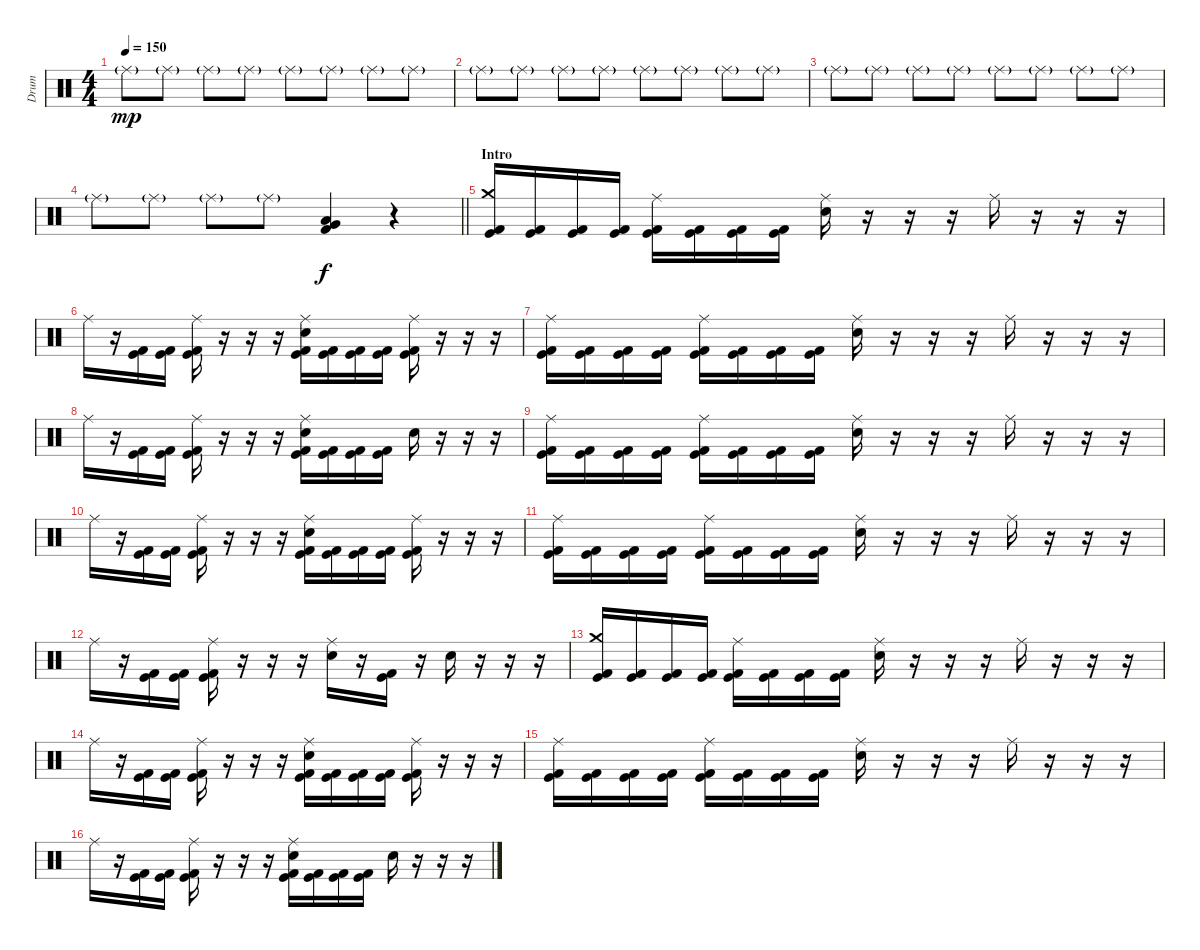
\track ("Drum" "Drum") {instrument percussion}
\staff {score}
\articulation defaults
\ts (4 4)
\tempo 150
\clef neutral
\ks c "Ride (middle)"{g}.8{dy mp} "Ride (middle)"{g}.8 "Ride (middle)"{g}.8 "Ride (middle)"{g}.8 "Ride (middle)"{g}.8 "Ride (middle)"{g}.8 "Ride (middle)"{g}.8 "Ride (middle)"{g}.8
|
"Ride (middle)"{g}.8 "Ride (middle)"{g}.8 "Ride (middle)"{g}.8 "Ride (middle)"{g}.8 "Ride (middle)"{g}.8 "Ride (middle)"{g}.8 "Ride (middle)"{g}.8 "Ride (middle)"{g}.8 |
"Ride (middle)"{g}.8 "Ride (middle)"{g}.8 "Ride (middle)"{g}.8 "Ride (middle)"{g}.8 "Ride (middle)"{g}.8 "Ride (middle)"{g}.8 "Ride (middle)"{g}.8 "Ride (middle)"{g}.8 |
\barLineRight lightlight "Ride (middle)"{g}.8 "Ride (middle)"{g}.8 "Ride (middle)"{g}.8 "Ride (middle)"{g}.8
("Very Low Tom (hit)" "Low Floor Tom (hit)" "Kick (hit) 2").4{dy f} r.4 |
\section ("" "Intro ")
("Crash medium (hit)" "Kick (hit)" "Kick (hit) 2").16 ("Kick (hit)" "Kick (hit) 2").16 ("Kick (hit)" "Kick (hit) 2").16 ("Kick (hit)" "Kick (hit) 2").16 ("Ride (middle)" "Kick (hit)" "Kick (hit) 2").16 ("Kick (hit)" "Kick (hit) 2").16 ("Kick (hit)" "Kick (hit) 2").16 ("Kick (hit)" "Kick (hit) 2").16 ("Ride (middle)" "Electric Snare (hit)").16 r.16 r.16 r.16 "Ride (middle)".16 r.16 r.16 r.16 |
"Ride (middle)".16 r.16 ("Kick (hit)" "Kick (hit) 2").16 ("Kick (hit)" "Kick (hit) 2").16 ("Ride (middle)" "Kick (hit)" "Kick (hit) 2").16 r.16 r.16 r.16 ("Ride (middle)" "Electric Snare (hit)" "Kick (hit)" "Kick (hit) 2").16 ("Kick (hit)" "Kick (hit) 2").16 ("Kick (hit)" "Kick (hit) 2").16 ("Kick (hit)" "Kick (hit) 2").16 ("Ride (middle)" "Kick (hit)" "Kick (hit) 2").16 r.16 r.16 r.16 |
("Ride (middle)" "Kick (hit)" "Kick (hit) 2").16 ("Kick (hit)" "Kick (hit) 2").16 ("Kick (hit)" "Kick (hit) 2").16 ("Kick (hit)" "Kick (hit) 2").16 ("Ride (middle)" "Kick (hit)" "Kick (hit) 2").16 ("Kick (hit)" "Kick (hit) 2").16 ("Kick (hit)" "Kick (hit) 2").16 ("Kick (hit)" "Kick (hit) 2").16 ("Ride (middle)" "Electric Snare (hit)").16 r.16 r.16 r.16 "Ride (middle)".16 r.16 r.16 r.16 |
"Ride (middle)".16 r.16 ("Kick (hit)" "Kick (hit) 2").16 ("Kick (hit)" "Kick (hit) 2").16 ("Ride (middle)" "Kick (hit)" "Kick (hit) 2").16 r.16 r.16 r.16 ("Ride (middle)" "Electric Snare (hit)" "Kick (hit)" "Kick (hit) 2").16 ("Kick (hit)" "Kick (hit) 2").16 ("Kick (hit)" "Kick (hit) 2").16 ("Kick (hit)" "Kick (hit) 2").16 "Electric Snare (hit)".16 r.16 r.16 r.16 |
("Ride (middle)" "Kick (hit)" "Kick (hit) 2").16 ("Kick (hit)" "Kick (hit) 2").16 ("Kick (hit)" "Kick (hit) 2").16 ("Kick (hit)" "Kick (hit) 2").16 ("Ride (middle)" "Kick (hit)" "Kick (hit) 2").16 ("Kick (hit)" "Kick (hit) 2").16 ("Kick (hit)" "Kick (hit) 2").16 ("Kick (hit)" "Kick (hit) 2").16 ("Ride (middle)" "Electric Snare (hit)").16 r.16 r.16 r.16 "Ride (middle)".16 r.16 r.16 r.16 |
"Ride (middle)".16 r.16 ("Kick (hit)" "Kick (hit) 2").16 ("Kick (hit)" "Kick (hit) 2").16 ("Ride (middle)" "Kick (hit)" "Kick (hit) 2").16 r.16 r.16 r.16 ("Ride (middle)" "Electric Snare (hit)" "Kick (hit)" "Kick (hit) 2").16 ("Kick (hit)" "Kick (hit) 2").16 ("Kick (hit)" "Kick (hit) 2").16 ("Kick (hit)" "Kick (hit) 2").16 ("Ride (middle)" "Kick (hit)" "Kick (hit) 2").16 r.16 r.16 r.16 |
("Ride (middle)" "Kick (hit)" "Kick (hit) 2").16 ("Kick (hit)" "Kick (hit) 2").16 ("Kick (hit)" "Kick (hit) 2").16 ("Kick (hit)" "Kick (hit) 2").16 ("Ride (middle)" "Kick (hit)" "Kick (hit) 2").16 ("Kick (hit)" "Kick (hit) 2").16 ("Kick (hit)" "Kick (hit) 2").16 ("Kick (hit)" "Kick (hit) 2").16 ("Ride (middle)" "Electric Snare (hit)").16 r.16 r.16 r.16 "Ride (middle)".16 r.16 r.16 r.16 |
"Ride (middle)".16 r.16 ("Kick (hit)" "Kick (hit) 2").16 ("Kick (hit)" "Kick (hit) 2").16 ("Ride (middle)" "Kick (hit)" "Kick (hit) 2").16 r.16 r.16 r.16 ("Ride (middle)" "Electric Snare (hit)").16 r.16 ("Kick (hit)" "Kick (hit) 2").16 r.16 "Electric Snare (hit)".16 r.16 r.16 r.16 |
("Crash medium (hit)" "Kick (hit)" "Kick (hit) 2").16 ("Kick (hit)" "Kick (hit) 2").16 ("Kick (hit)" "Kick (hit) 2").16 ("Kick (hit)" "Kick (hit) 2").16 ("Ride (middle)" "Kick (hit)" "Kick (hit) 2").16 ("Kick (hit)" "Kick (hit) 2").16 ("Kick (hit)" "Kick (hit) 2").16 ("Kick (hit)" "Kick (hit) 2").16 ("Ride (middle)" "Electric Snare (hit)").16 r.16 r.16 r.16 "Ride (middle)".16 r.16 r.16 r.16 |
"Ride (middle)".16 r.16 ("Kick (hit)" "Kick (hit) 2").16 ("Kick (hit)" "Kick (hit) 2").16 ("Ride (middle)" "Kick (hit)" "Kick (hit) 2").16 r.16 r.16 r.16 ("Ride (middle)" "Electric Snare (hit)" "Kick (hit)" "Kick (hit) 2").16 ("Kick (hit)" "Kick (hit) 2").16 ("Kick (hit)" "Kick (hit) 2").16 ("Kick (hit)" "Kick (hit) 2").16 ("Ride (middle)" "Kick (hit)" "Kick (hit) 2").16 r.16 r.16 r.16 |
("Ride (middle)" "Kick (hit)" "Kick (hit) 2").16 ("Kick (hit)" "Kick (hit) 2").16 ("Kick (hit)" "Kick (hit) 2").16 ("Kick (hit)" "Kick (hit) 2").16 ("Ride (middle)" "Kick (hit)" "Kick (hit) 2").16 ("Kick (hit)" "Kick (hit) 2").16 ("Kick (hit)" "Kick (hit) 2").16 ("Kick (hit)" "Kick (hit) 2").16 ("Ride (middle)" "Electric Snare (hit)").16 r.16 r.16 r.16 "Ride (middle)".16 r.16 r.16 r.16 |
"Ride (middle)".16 r.16 ("Kick (hit)" "Kick (hit) 2").16 ("Kick (hit)" "Kick (hit) 2").16 ("Ride (middle)" "Kick (hit)" "Kick (hit) 2").16 r.16 r.16 r.16 ("Ride (middle)" "Electric Snare (hit)" "Kick (hit)" "Kick (hit) 2").16 ("Kick (hit)" "Kick (hit) 2").16 ("Kick (hit)" "Kick (hit) 2").16 ("Kick (hit)" "Kick (hit) 2").16 "Electric Snare (hit)".16 r.16 r.16 r.16
